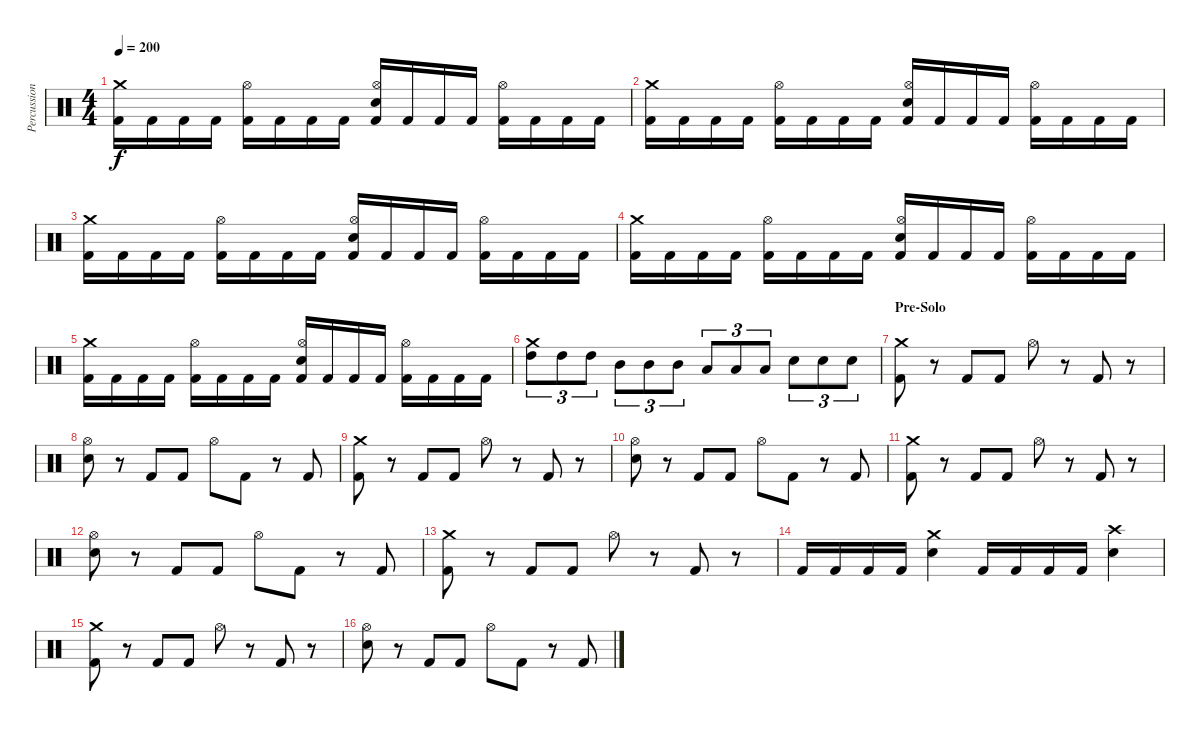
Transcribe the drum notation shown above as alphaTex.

\track ("Percussions" "Percussion") {instrument percussion}
\staff {score}
\articulation defaults
\ts (4 4)
\tempo 200
\clef neutral
\ks c
("Crash medium (hit)" "Kick (hit) 2").16{dy f} "Kick (hit) 2".16 "Kick (hit) 2".16 "Kick (hit) 2".16 ("Hi-Hat (open)" "Kick (hit) 2").16 "Kick (hit) 2".16 "Kick (hit) 2".16 "Kick (hit) 2".16 ("Hi-Hat (open)" "Electric Snare (hit)" "Kick (hit) 2").16 "Kick (hit) 2".16 "Kick (hit) 2".16 "Kick (hit) 2".16 ("Hi-Hat (open)" "Kick (hit) 2").16 "Kick (hit) 2".16 "Kick (hit) 2".16 "Kick (hit) 2".16 |
("Crash medium (hit)" "Kick (hit) 2").16 "Kick (hit) 2".16 "Kick (hit) 2".16 "Kick (hit) 2".16 ("Hi-Hat (open)" "Kick (hit) 2").16 "Kick (hit) 2".16 "Kick (hit) 2".16 "Kick (hit) 2".16 ("Hi-Hat (open)" "Electric Snare (hit)" "Kick (hit) 2").16 "Kick (hit) 2".16 "Kick (hit) 2".16 "Kick (hit) 2".16 ("Hi-Hat (open)" "Kick (hit) 2").16 "Kick (hit) 2".16 "Kick (hit) 2".16 "Kick (hit) 2".16 |
("Crash medium (hit)" "Kick (hit) 2").16 "Kick (hit) 2".16 "Kick (hit) 2".16 "Kick (hit) 2".16 ("Hi-Hat (open)" "Kick (hit) 2").16 "Kick (hit) 2".16 "Kick (hit) 2".16 "Kick (hit) 2".16 ("Hi-Hat (open)" "Electric Snare (hit)" "Kick (hit) 2").16 "Kick (hit) 2".16 "Kick (hit) 2".16 "Kick (hit) 2".16 ("Hi-Hat (open)" "Kick (hit) 2").16 "Kick (hit) 2".16 "Kick (hit) 2".16 "Kick (hit) 2".16 |
("Crash medium (hit)" "Kick (hit) 2").16 "Kick (hit) 2".16 "Kick (hit) 2".16 "Kick (hit) 2".16 ("Hi-Hat (open)" "Kick (hit) 2").16 "Kick (hit) 2".16 "Kick (hit) 2".16 "Kick (hit) 2".16 ("Hi-Hat (open)" "Electric Snare (hit)" "Kick (hit) 2").16 "Kick (hit) 2".16 "Kick (hit) 2".16 "Kick (hit) 2".16 ("Hi-Hat (open)" "Kick (hit) 2").16 "Kick (hit) 2".16 "Kick (hit) 2".16 "Kick (hit) 2".16 |
("Crash medium (hit)" "Kick (hit) 2").16 "Kick (hit) 2".16 "Kick (hit) 2".16 "Kick (hit) 2".16 ("Hi-Hat (open)" "Kick (hit) 2").16 "Kick (hit) 2".16 "Kick (hit) 2".16 "Kick (hit) 2".16 ("Hi-Hat (open)" "Electric Snare (hit)" "Kick (hit) 2").16 "Kick (hit) 2".16 "Kick (hit) 2".16 "Kick (hit) 2".16 ("Hi-Hat (open)" "Kick (hit) 2").16 "Kick (hit) 2".16 "Kick (hit) 2".16 "Kick (hit) 2".16 |
("Crash medium (hit)" "High Tom (hit)").8{tu (3 2)} "High Tom (hit)".8{tu (3 2)} "High Tom (hit)".8{tu (3 2)} "Mid Tom (hit)".8{tu (3 2)} "Mid Tom (hit)".8{tu (3 2)} "Mid Tom (hit)".8{tu (3 2)} "Low Tom (hit)".8{tu (3 2)} "Low Tom (hit)".8{tu (3 2)} "Low Tom (hit)".8{tu (3 2)} "Electric Snare (hit)".8{tu (3 2)} "Electric Snare (hit)".8{tu (3 2)} "Electric Snare (hit)".8{tu (3 2)} |
\section ("" "Pre-Solo")
("Crash medium (hit)" "Kick (hit) 2").8 r.8 "Kick (hit) 2".8 "Kick (hit) 2".8 "Hi-Hat (open)".8 r.8 "Kick (hit) 2".8 r.8 |
("Hi-Hat (open)" "Electric Snare (hit)").8 r.8 "Kick (hit) 2".8 "Kick (hit) 2".8 "Hi-Hat (open)".8 "Kick (hit) 2".8 r.8 "Kick (hit) 2".8 |
("Crash medium (hit)" "Kick (hit) 2").8 r.8 "Kick (hit) 2".8 "Kick (hit) 2".8 "Hi-Hat (open)".8 r.8 "Kick (hit) 2".8 r.8 |
("Hi-Hat (open)" "Electric Snare (hit)").8 r.8 "Kick (hit) 2".8 "Kick (hit) 2".8 "Hi-Hat (open)".8 "Kick (hit) 2".8 r.8 "Kick (hit) 2".8 |
("Crash medium (hit)" "Kick (hit) 2").8 r.8 "Kick (hit) 2".8 "Kick (hit) 2".8 "Hi-Hat (open)".8 r.8 "Kick (hit) 2".8 r.8 |
("Hi-Hat (open)" "Electric Snare (hit)").8 r.8 "Kick (hit) 2".8 "Kick (hit) 2".8 "Hi-Hat (open)".8 "Kick (hit) 2".8 r.8 "Kick (hit) 2".8 |
("Crash medium (hit)" "Kick (hit) 2").8 r.8 "Kick (hit) 2".8 "Kick (hit) 2".8 "Hi-Hat (open)".8 r.8 "Kick (hit) 2".8 r.8 |
"Kick (hit) 2".16 "Kick (hit) 2".16 "Kick (hit) 2".16 "Kick (hit) 2".16 ("Crash medium (hit)" "Electric Snare (hit)").4 "Kick (hit) 2".16 "Kick (hit) 2".16 "Kick (hit) 2".16 "Kick (hit) 2".16 ("Crash high (hit)" "Electric Snare (hit)").4 |
("Crash medium (hit)" "Kick (hit) 2").8 r.8 "Kick (hit) 2".8 "Kick (hit) 2".8 "Hi-Hat (open)".8 r.8 "Kick (hit) 2".8 r.8 |
("Hi-Hat (open)" "Electric Snare (hit)").8 r.8 "Kick (hit) 2".8 "Kick (hit) 2".8 "Hi-Hat (open)".8 "Kick (hit) 2".8 r.8 "Kick (hit) 2".8
